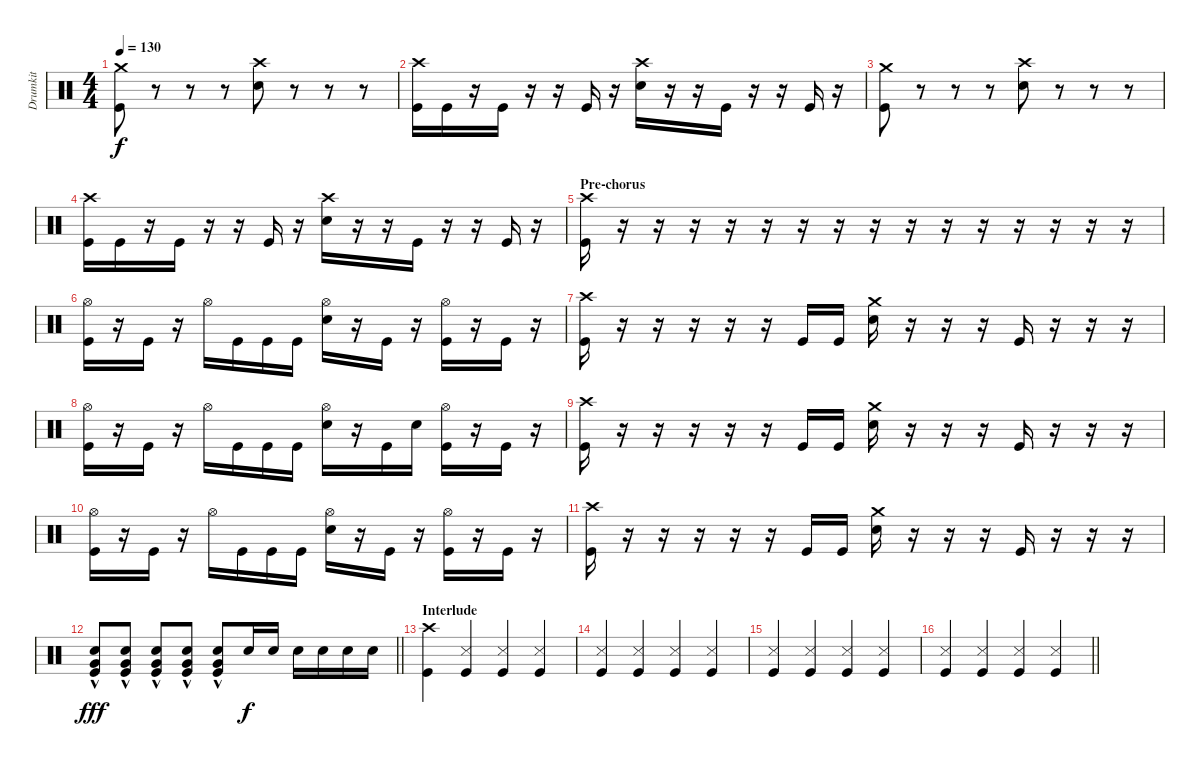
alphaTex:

\track ("Drumkit" "Drumkit") {instrument percussion}
\staff {score}
\articulation defaults
\ts (4 4)
\tempo 130
\clef neutral
\ks c
("Crash medium (hit)" "Kick (hit)").8{dy f} r.8 r.8 r.8 ("Crash high (hit)" "Electric Snare (hit)").8 r.8 r.8 r.8 |
("Crash high (hit)" "Kick (hit)").16 "Kick (hit)".16 r.16 "Kick (hit)".16 r.16 r.16 "Kick (hit)".16 r.16 ("Crash high (hit)" "Electric Snare (hit)").16 r.16 r.16 "Kick (hit)".16 r.16 r.16 "Kick (hit)".16 r.16 |
("Crash medium (hit)" "Kick (hit)").8 r.8 r.8 r.8 ("Crash high (hit)" "Electric Snare (hit)").8 r.8 r.8 r.8 |
("Crash high (hit)" "Kick (hit)").16 "Kick (hit)".16 r.16 "Kick (hit)".16 r.16 r.16 "Kick (hit)".16 r.16 ("Crash high (hit)" "Electric Snare (hit)").16 r.16 r.16 "Kick (hit)".16 r.16 r.16 "Kick (hit)".16 r.16 |
\section ("" "Pre-chorus")
("Crash high (hit)" "Kick (hit)").16 r.16 r.16 r.16 r.16 r.16 r.16 r.16 r.16 r.16 r.16 r.16 r.16 r.16 r.16 r.16 |
("Hi-Hat (open)" "Kick (hit)").16 r.16 "Kick (hit)".16 r.16 "Hi-Hat (open)".16 "Kick (hit)".16 "Kick (hit)".16 "Kick (hit)".16 ("Hi-Hat (open)" "Electric Snare (hit)").16 r.16 "Kick (hit)".16 r.16 ("Hi-Hat (open)" "Kick (hit)").16 r.16 "Kick (hit)".16 r.16 |
("Crash high (hit)" "Kick (hit)").16 r.16 r.16 r.16 r.16 r.16 "Kick (hit)".16 "Kick (hit)".16 ("Crash medium (hit)" "Electric Snare (hit)").16 r.16 r.16 r.16 "Kick (hit)".16 r.16 r.16 r.16 |
("Hi-Hat (open)" "Kick (hit)").16 r.16 "Kick (hit)".16 r.16 "Hi-Hat (open)".16 "Kick (hit)".16 "Kick (hit)".16 "Kick (hit)".16 ("Hi-Hat (open)" "Electric Snare (hit)").16 r.16 "Kick (hit)".16 "Electric Snare (hit)".16 ("Hi-Hat (open)" "Kick (hit)").16 r.16 "Kick (hit)".16 r.16 |
("Crash high (hit)" "Kick (hit)").16 r.16 r.16 r.16 r.16 r.16 "Kick (hit)".16 "Kick (hit)".16 ("Crash medium (hit)" "Electric Snare (hit)").16 r.16 r.16 r.16 "Kick (hit)".16 r.16 r.16 r.16 |
("Hi-Hat (open)" "Kick (hit)").16 r.16 "Kick (hit)".16 r.16 "Hi-Hat (open)".16 "Kick (hit)".16 "Kick (hit)".16 "Kick (hit)".16 ("Hi-Hat (open)" "Electric Snare (hit)").16 r.16 "Kick (hit)".16 r.16 ("Hi-Hat (open)" "Kick (hit)").16 r.16 "Kick (hit)".16 r.16 |
("Crash high (hit)" "Kick (hit)").16 r.16 r.16 r.16 r.16 r.16 "Kick (hit)".16 "Kick (hit)".16 ("Crash medium (hit)" "Electric Snare (hit)").16 r.16 r.16 r.16 "Kick (hit)".16 r.16 r.16 r.16 |
\barLineRight lightlight
("Very Low Tom (hit)"{hac} "Electric Snare (hit)" "Kick (hit)").8{dy fff} ("Very Low Tom (hit)"{hac} "Electric Snare (hit)" "Kick (hit)").8 ("Very Low Tom (hit)"{hac} "Electric Snare (hit)" "Kick (hit)").8 ("Very Low Tom (hit)"{hac} "Electric Snare (hit)" "Kick (hit)").8 ("Very Low Tom (hit)"{hac} "Electric Snare (hit)" "Kick (hit)").8 "Electric Snare (hit)".16{dy f} "Electric Snare (hit)".16 "Electric Snare (hit)".16 "Electric Snare (hit)".16 "Electric Snare (hit)".16 "Electric Snare (hit)".16 |
\section ("" "Interlude")
("Crash high (hit)" "Kick (hit)").4 ("Snare (side stick) 3" "Kick (hit)").4 ("Snare (side stick) 3" "Kick (hit)").4 ("Snare (side stick) 3" "Kick (hit)").4 |
("Snare (side stick) 3" "Kick (hit)").4 ("Snare (side stick) 3" "Kick (hit)").4 ("Snare (side stick) 3" "Kick (hit)").4 ("Snare (side stick) 3" "Kick (hit)").4 |
("Snare (side stick) 3" "Kick (hit)").4 ("Snare (side stick) 3" "Kick (hit)").4 ("Snare (side stick) 3" "Kick (hit)").4 ("Snare (side stick) 3" "Kick (hit)").4 |
\barLineRight lightlight
("Snare (side stick) 3" "Kick (hit)").4 ("Snare (side stick) 3" "Kick (hit)").4 ("Snare (side stick) 3" "Kick (hit)").4 ("Snare (side stick) 3" "Kick (hit)").4
